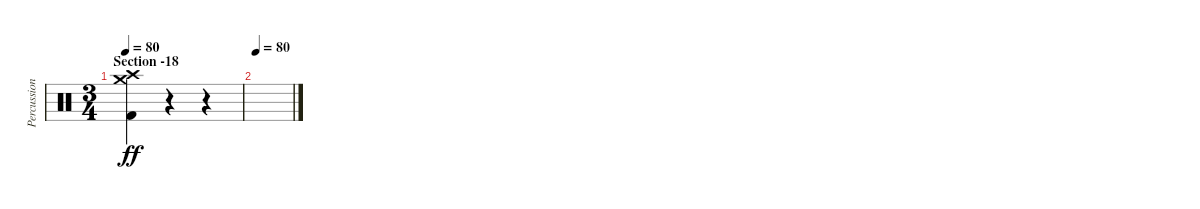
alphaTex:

\track ("Percussion" "Percussion") {instrument percussion}
\staff {score}
\articulation defaults
\ts (3 4)
\section ("" "Section -18")
\tempo 80
\clef neutral
\ks c
("Crash high (hit)" "Crash medium (hit)" "Kick (hit) 2").4{dy ff} r.4 r.4 |
\tempo 80
